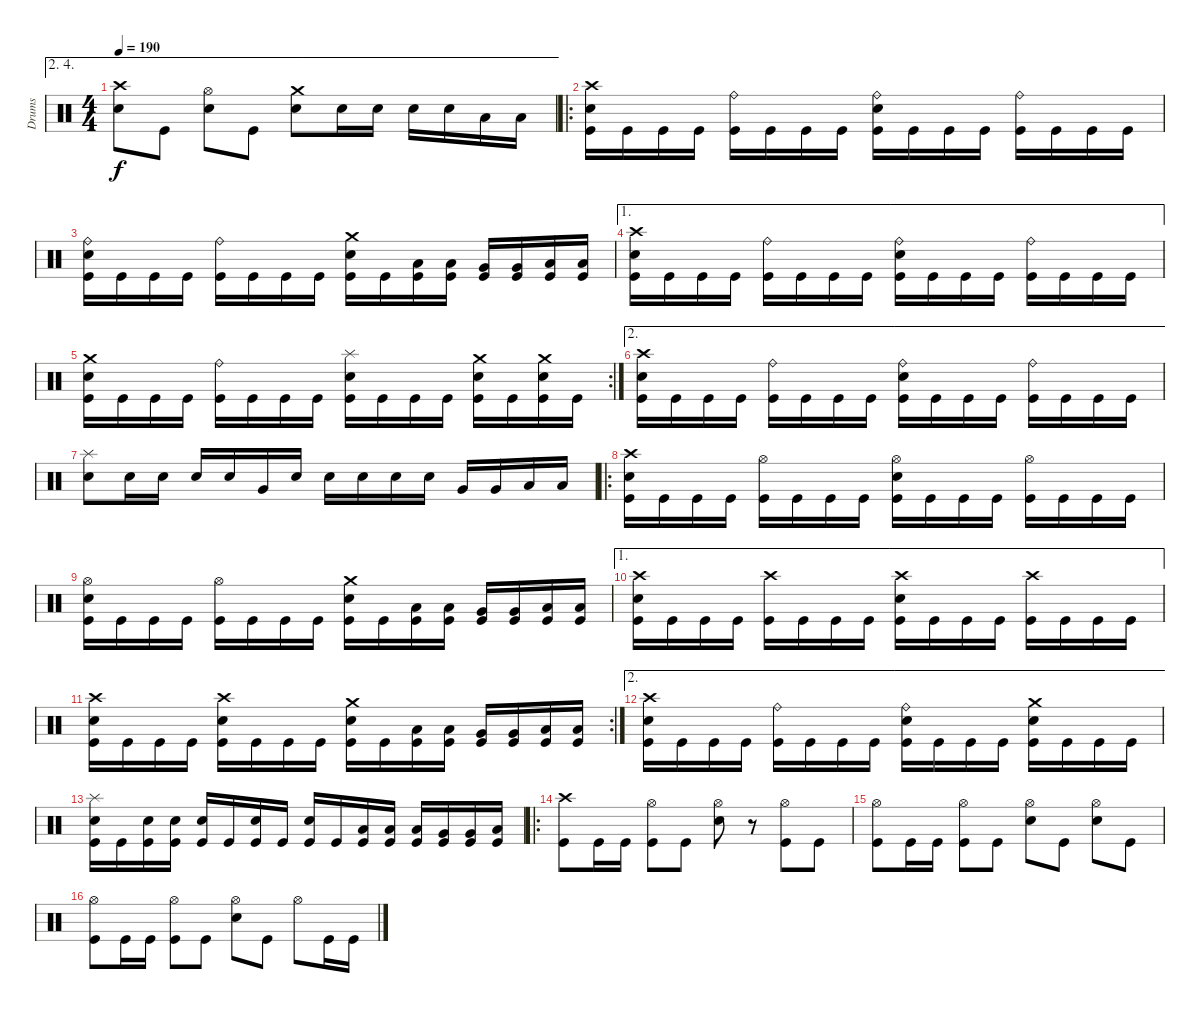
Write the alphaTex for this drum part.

\track ("Drums" "Drums") {instrument percussion}
\staff {score}
\articulation defaults
\ae (2 4)
\ts (4 4)
\tempo 190
\clef neutral
\ks c
("Crash high (hit)" "Electric Snare (hit)").8{dy f} "Kick (hit)".8 ("Hi-Hat (open)" "Electric Snare (hit)").8 "Kick (hit)".8 ("Crash medium (hit)" "Electric Snare (hit)").8 "Electric Snare (hit)".16 "Electric Snare (hit)".16 "Electric Snare (hit)".16 "Electric Snare (hit)".16 "Low Tom (hit)".16 "Low Tom (hit)".16 |
\ro
("Crash high (hit)" "Electric Snare (hit)" "Kick (hit)").16 "Kick (hit)".16 "Kick (hit)".16 "Kick (hit)".16 ("Ride (bell)" "Kick (hit)").16 "Kick (hit)".16 "Kick (hit)".16 "Kick (hit)".16 ("Ride (bell)" "Electric Snare (hit)" "Kick (hit)").16 "Kick (hit)".16 "Kick (hit)".16 "Kick (hit)".16 ("Ride (bell)" "Kick (hit)").16 "Kick (hit)".16 "Kick (hit)".16 "Kick (hit)".16 |
("Ride (bell)" "Electric Snare (hit)" "Kick (hit)").16 "Kick (hit)".16 "Kick (hit)".16 "Kick (hit)".16 ("Ride (bell)" "Kick (hit)").16 "Kick (hit)".16 "Kick (hit)".16 "Kick (hit)".16 ("Crash medium (hit)" "Electric Snare (hit)" "Kick (hit)").16 "Kick (hit)".16 ("Low Tom (hit)" "Kick (hit)").16 ("Low Tom (hit)" "Kick (hit)").16 ("Very Low Tom (hit)" "Kick (hit)").16 ("Very Low Tom (hit)" "Kick (hit)").16 ("Low Floor Tom (hit)" "Kick (hit)").16 ("Low Floor Tom (hit)" "Kick (hit)").16 |
\ae 1
("Crash high (hit)" "Electric Snare (hit)" "Kick (hit)").16 "Kick (hit)".16 "Kick (hit)".16 "Kick (hit)".16 ("Ride (bell)" "Kick (hit)").16 "Kick (hit)".16 "Kick (hit)".16 "Kick (hit)".16 ("Ride (bell)" "Electric Snare (hit)" "Kick (hit)").16 "Kick (hit)".16 "Kick (hit)".16 "Kick (hit)".16 ("Ride (bell)" "Kick (hit)").16 "Kick (hit)".16 "Kick (hit)".16 "Kick (hit)".16 |
\rc 2
("Crash medium (hit)" "Electric Snare (hit)" "Kick (hit)").16 "Kick (hit)".16 "Kick (hit)".16 "Kick (hit)".16 ("Ride (bell)" "Kick (hit)").16 "Kick (hit)".16 "Kick (hit)".16 "Kick (hit)".16 ("Splash (hit)" "Electric Snare (hit)" "Kick (hit)").16 "Kick (hit)".16 "Kick (hit)".16 "Kick (hit)".16 ("Crash medium (hit)" "Electric Snare (hit)" "Kick (hit)").16 "Kick (hit)".16 ("Crash medium (hit)" "Electric Snare (hit)" "Kick (hit)").16 "Kick (hit)".16 |
\ae 2
("Crash high (hit)" "Electric Snare (hit)" "Kick (hit)").16 "Kick (hit)".16 "Kick (hit)".16 "Kick (hit)".16 ("Ride (bell)" "Kick (hit)").16 "Kick (hit)".16 "Kick (hit)".16 "Kick (hit)".16 ("Ride (bell)" "Electric Snare (hit)" "Kick (hit)").16 "Kick (hit)".16 "Kick (hit)".16 "Kick (hit)".16 ("Ride (bell)" "Kick (hit)").16 "Kick (hit)".16 "Kick (hit)".16 "Kick (hit)".16 |
("Splash (hit)" "Electric Snare (hit)").8 "Electric Snare (hit)".16 "Electric Snare (hit)".16 "Electric Snare (hit)".16 "Electric Snare (hit)".16 "Very Low Tom (hit)".16 "Electric Snare (hit)".16 "Electric Snare (hit)".16 "Electric Snare (hit)".16 "Electric Snare (hit)".16 "Electric Snare (hit)".16 "Very Low Tom (hit)".16 "Very Low Tom (hit)".16 "Low Floor Tom (hit)".16 "Low Floor Tom (hit)".16 |
\ro
("Crash high (hit)" "Electric Snare (hit)" "Kick (hit)").16 "Kick (hit)".16 "Kick (hit)".16 "Kick (hit)".16 ("Hi-Hat (open)" "Kick (hit)").16 "Kick (hit)".16 "Kick (hit)".16 "Kick (hit)".16 ("Hi-Hat (open)" "Electric Snare (hit)" "Kick (hit)").16 "Kick (hit)".16 "Kick (hit)".16 "Kick (hit)".16 ("Hi-Hat (open)" "Kick (hit)").16 "Kick (hit)".16 "Kick (hit)".16 "Kick (hit)".16 |
("Hi-Hat (open)" "Electric Snare (hit)" "Kick (hit)").16 "Kick (hit)".16 "Kick (hit)".16 "Kick (hit)".16 ("Hi-Hat (open)" "Kick (hit)").16 "Kick (hit)".16 "Kick (hit)".16 "Kick (hit)".16 ("Crash medium (hit)" "Electric Snare (hit)" "Kick (hit)").16 "Kick (hit)".16 ("Low Tom (hit)" "Kick (hit)").16 ("Low Tom (hit)" "Kick (hit)").16 ("Very Low Tom (hit)" "Kick (hit)").16 ("Very Low Tom (hit)" "Kick (hit)").16 ("Low Floor Tom (hit)" "Kick (hit)").16 ("Low Floor Tom (hit)" "Kick (hit)").16 |
\ae 1
("Crash high (hit)" "Electric Snare (hit)" "Kick (hit)").16 "Kick (hit)".16 "Kick (hit)".16 "Kick (hit)".16 ("Crash high (hit)" "Kick (hit)").16 "Kick (hit)".16 "Kick (hit)".16 "Kick (hit)".16 ("Crash high (hit)" "Electric Snare (hit)" "Kick (hit)").16 "Kick (hit)".16 "Kick (hit)".16 "Kick (hit)".16 ("Crash high (hit)" "Kick (hit)").16 "Kick (hit)".16 "Kick (hit)".16 "Kick (hit)".16 |
\rc 2
("Crash high (hit)" "Electric Snare (hit)" "Kick (hit)").16 "Kick (hit)".16 "Kick (hit)".16 "Kick (hit)".16 ("Crash high (hit)" "Electric Snare (hit)" "Kick (hit)").16 "Kick (hit)".16 "Kick (hit)".16 "Kick (hit)".16 ("Crash medium (hit)" "Electric Snare (hit)" "Kick (hit)").16 "Kick (hit)".16 ("Low Tom (hit)" "Kick (hit)").16 ("Low Tom (hit)" "Kick (hit)").16 ("Very Low Tom (hit)" "Kick (hit)").16 ("Very Low Tom (hit)" "Kick (hit)").16 ("Low Floor Tom (hit)" "Kick (hit)").16 ("Low Floor Tom (hit)" "Kick (hit)").16 |
\ae 2
("Crash high (hit)" "Electric Snare (hit)" "Kick (hit)").16 "Kick (hit)".16 "Kick (hit)".16 "Kick (hit)".16 ("Ride (bell)" "Kick (hit)").16 "Kick (hit)".16 "Kick (hit)".16 "Kick (hit)".16 ("Ride (bell)" "Electric Snare (hit)" "Kick (hit)").16 "Kick (hit)".16 "Kick (hit)".16 "Kick (hit)".16 ("Crash medium (hit)" "Electric Snare (hit)" "Kick (hit)").16 "Kick (hit)".16 "Kick (hit)".16 "Kick (hit)".16 |
("Splash (hit)" "Electric Snare (hit)" "Kick (hit)").16 "Kick (hit)".16 ("Electric Snare (hit)" "Kick (hit)").16 ("Electric Snare (hit)" "Kick (hit)").16 ("Electric Snare (hit)" "Kick (hit)").16 "Kick (hit)".16 ("Electric Snare (hit)" "Kick (hit)").16 "Kick (hit)".16 ("Electric Snare (hit)" "Kick (hit)").16 "Kick (hit)".16 ("Low Tom (hit)" "Kick (hit)").16 ("Low Tom (hit)" "Kick (hit)").16 ("Low Tom (hit)" "Kick (hit)").16 ("Very Low Tom (hit)" "Kick (hit)").16 ("Very Low Tom (hit)" "Kick (hit)").16 ("Low Floor Tom (hit)" "Kick (hit)").16 |
\ro
("Crash high (hit)" "Kick (hit)").8 "Kick (hit)".16 "Kick (hit)".16 ("Hi-Hat (open)" "Kick (hit)").8 "Kick (hit)".8 ("Hi-Hat (open)" "Electric Snare (hit)").8 r.8 ("Hi-Hat (open)" "Kick (hit)").8 "Kick (hit)".8 |
("Hi-Hat (open)" "Kick (hit)").8 "Kick (hit)".16 "Kick (hit)".16 ("Hi-Hat (open)" "Kick (hit)").8 "Kick (hit)".8 ("Hi-Hat (open)" "Electric Snare (hit)").8 "Kick (hit)".8 ("Hi-Hat (open)" "Electric Snare (hit)").8 "Kick (hit)".8 |
("Hi-Hat (open)" "Kick (hit)").8 "Kick (hit)".16 "Kick (hit)".16 ("Hi-Hat (open)" "Kick (hit)").8 "Kick (hit)".8 ("Hi-Hat (open)" "Electric Snare (hit)").8 "Kick (hit)".8 "Hi-Hat (open)".8 "Kick (hit)".16 "Kick (hit)".16
